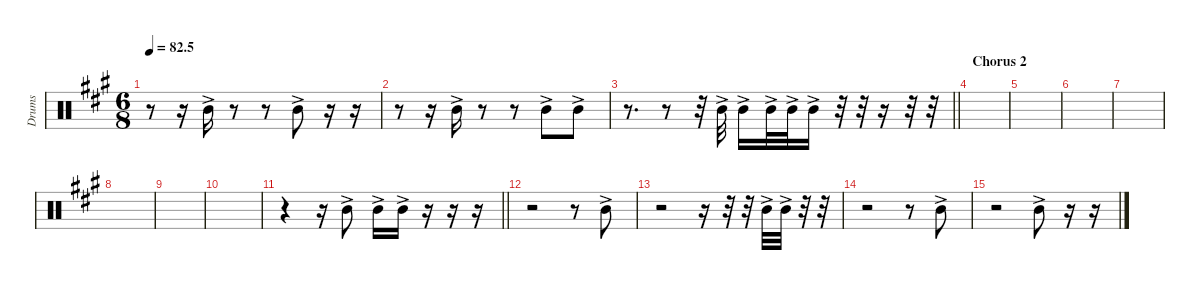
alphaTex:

\defaultSystemsLayout 4
\hideDynamics
\bracketExtendMode nobrackets
\otherSystemsTrackNameOrientation horizontal
\track ("Tom 02" "Drums") {instrument percussion}
\staff {score}
\articulation defaults
\ts (6 8)
\tempo
82.5
\accidentals auto
\clef neutral
\ottava regular
\simile none
\scale
0.333333
\ks a
r.8{dy f} r.16 "Mid Tom (hit)"{ac acc forcenatural}.16 r.8 r.8 "Mid Tom (hit)"{ac acc forcenatural}.8 r.16 r.16 |
\scale
0.333333 r.8 r.16 "Mid Tom (hit)"{ac acc forcenatural}.16 r.8 r.8 "Mid Tom (hit)"{ac acc forcenatural}.8 "Mid Tom (hit)"{ac acc forcenatural}.8 |
\scale
0.333333
\barLineRight lightlight
r.8{d} r.8 r.32 "Mid Tom (hit)"{ac acc forcenatural}.32 "Mid Tom (hit)"{ac acc forcenatural}.16 "Mid Tom (hit)"{ac acc forcenatural}.32 "Mid Tom (hit)"{ac acc forcenatural}.32 "Mid Tom (hit)"{ac acc forcenatural}.16 r.32 r.32 r.16 r.32 r.32 |
\section ("" "Chorus 2")
\scale
0.333333 |
\scale
0.333333 |
\scale
0.333333 |
\scale
0.333333 |
\scale
0.333333 |
\scale
0.333333 |
\scale
0.333333 |
\scale
0.333333
\barLineRight lightlight
r.4 r.16 "Mid Tom (hit)"{ac acc forcenatural}.8 "Mid Tom (hit)"{ac acc forcenatural}.16 "Mid Tom (hit)"{ac acc forcenatural}.16 r.16 r.16 r.16 |
\scale
0.333333 r.2 r.8 "Mid Tom (hit)"{ac acc forcenatural}.8 |
\scale
0.333333 r.2 r.16 r.32 r.32 "Mid Tom (hit)"{ac acc forcenatural}.32 "Mid Tom (hit)"{ac acc forcenatural}.32 r.32 r.32 |
\scale
0.333333 r.2 r.8 "Mid Tom (hit)"{ac acc forcenatural}.8 |
\scale
0.333333 r.2 "Mid Tom (hit)"{ac acc forcenatural}.8 r.16 r.16 |
\scale
0.333333
